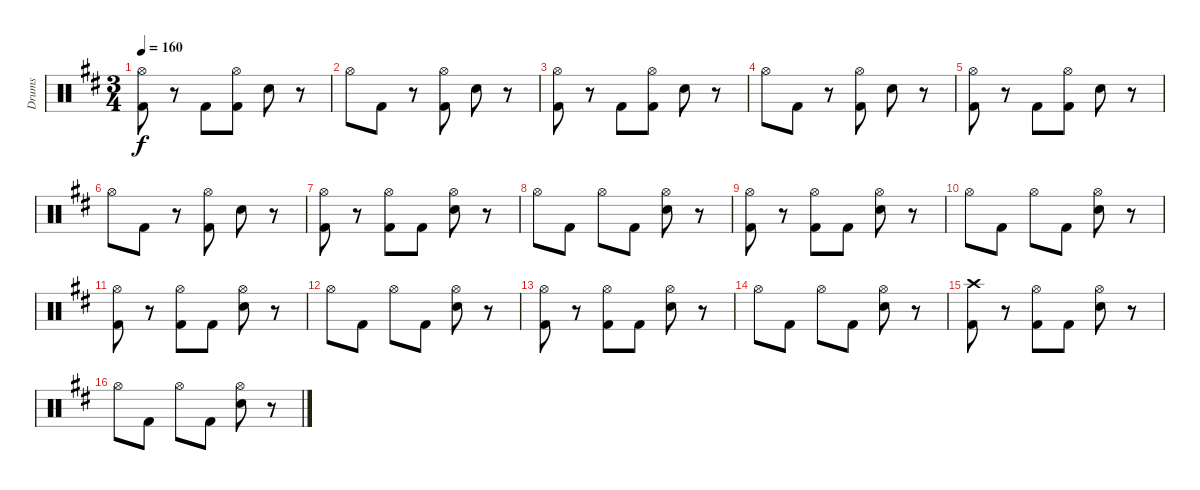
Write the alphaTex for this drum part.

\track ("Drums" "Drums") {instrument percussion}
\staff {score}
\articulation defaults
\ts (3 4)
\tempo 160
\clef neutral
\ks bminor
("Hi-Hat (open)" "Kick (hit) 2").8{dy f} r.8 "Kick (hit) 2".8 ("Hi-Hat (open)" "Kick (hit) 2").8 "Snare (hit) 2".8 r.8 |
"Hi-Hat (open)".8 "Kick (hit) 2".8 r.8 ("Hi-Hat (open)" "Kick (hit) 2").8 "Snare (hit) 2".8 r.8 |
("Hi-Hat (open)" "Kick (hit) 2").8 r.8 "Kick (hit) 2".8 ("Hi-Hat (open)" "Kick (hit) 2").8 "Snare (hit) 2".8 r.8 |
"Hi-Hat (open)".8 "Kick (hit) 2".8 r.8 ("Hi-Hat (open)" "Kick (hit) 2").8 "Snare (hit) 2".8 r.8 |
("Hi-Hat (open)" "Kick (hit) 2").8 r.8 "Kick (hit) 2".8 ("Hi-Hat (open)" "Kick (hit) 2").8 "Snare (hit) 2".8 r.8 |
"Hi-Hat (open)".8 "Kick (hit) 2".8 r.8 ("Hi-Hat (open)" "Kick (hit) 2").8 "Snare (hit) 2".8 r.8 |
("Hi-Hat (open)" "Kick (hit) 2").8 r.8 ("Hi-Hat (open)" "Kick (hit) 2").8 "Kick (hit) 2".8 ("Hi-Hat (open)" "Snare (hit) 2").8 r.8 |
"Hi-Hat (open)".8 "Kick (hit) 2".8 "Hi-Hat (open)".8 "Kick (hit) 2".8 ("Hi-Hat (open)" "Snare (hit) 2").8 r.8 |
("Hi-Hat (open)" "Kick (hit) 2").8 r.8 ("Hi-Hat (open)" "Kick (hit) 2").8 "Kick (hit) 2".8 ("Hi-Hat (open)" "Snare (hit) 2").8 r.8 |
"Hi-Hat (open)".8 "Kick (hit) 2".8 "Hi-Hat (open)".8 "Kick (hit) 2".8 ("Hi-Hat (open)" "Snare (hit) 2").8 r.8 |
("Hi-Hat (open)" "Kick (hit) 2").8 r.8 ("Hi-Hat (open)" "Kick (hit) 2").8 "Kick (hit) 2".8 ("Hi-Hat (open)" "Snare (hit) 2").8 r.8 |
"Hi-Hat (open)".8 "Kick (hit) 2".8 "Hi-Hat (open)".8 "Kick (hit) 2".8 ("Hi-Hat (open)" "Snare (hit) 2").8 r.8 |
("Hi-Hat (open)" "Kick (hit) 2").8 r.8 ("Hi-Hat (open)" "Kick (hit) 2").8 "Kick (hit) 2".8 ("Hi-Hat (open)" "Snare (hit) 2").8 r.8 |
"Hi-Hat (open)".8 "Kick (hit) 2".8 "Hi-Hat (open)".8 "Kick (hit) 2".8 ("Hi-Hat (open)" "Snare (hit) 2").8 r.8 |
("Crash high (hit)" "Kick (hit) 2").8 r.8 ("Hi-Hat (open)" "Kick (hit) 2").8 "Kick (hit) 2".8 ("Hi-Hat (open)" "Snare (hit) 2").8 r.8 |
"Hi-Hat (open)".8 "Kick (hit) 2".8 "Hi-Hat (open)".8 "Kick (hit) 2".8 ("Hi-Hat (open)" "Snare (hit) 2").8 r.8
